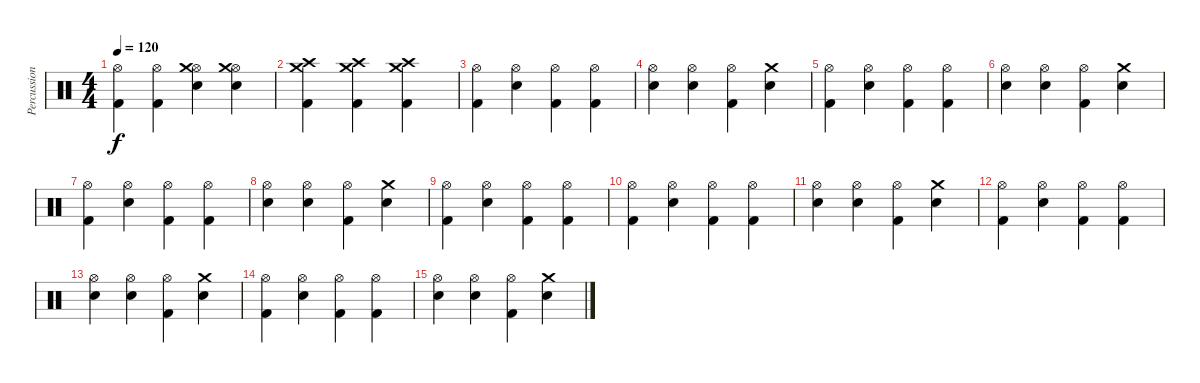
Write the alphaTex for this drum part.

\track ("Percussion" "Percussion") {instrument percussion}
\staff {score}
\articulation defaults
\ts (4 4)
\tempo 120
\clef neutral
\ks c
("Kick (hit) 2" "Hi-Hat (open)").4{dy f} ("Kick (hit) 2" "Hi-Hat (open)").4 ("Snare (hit) 2" "Hi-Hat (open)" "Crash medium (hit)").4 ("Snare (hit) 2" "Hi-Hat (open)" "Crash medium (hit)").4 |
("Kick (hit) 2" "Crash high (hit)" "Crash medium (hit)").4 ("Kick (hit) 2" "Crash high (hit)" "Crash medium (hit)").4 ("Kick (hit) 2" "Crash high (hit)" "Crash medium (hit)").4 |
("Kick (hit) 2" "Hi-Hat (open)").4 ("Snare (hit) 2" "Hi-Hat (open)").4 ("Kick (hit) 2" "Hi-Hat (open)").4 ("Kick (hit) 2" "Hi-Hat (open)").4 |
("Snare (hit) 2" "Hi-Hat (open)").4 ("Snare (hit) 2" "Hi-Hat (open)").4 ("Kick (hit) 2" "Hi-Hat (open)").4 ("Snare (hit) 2" "Crash medium (hit)").4 |
("Kick (hit) 2" "Hi-Hat (open)").4 ("Snare (hit) 2" "Hi-Hat (open)").4 ("Kick (hit) 2" "Hi-Hat (open)").4 ("Kick (hit) 2" "Hi-Hat (open)").4 |
("Snare (hit) 2" "Hi-Hat (open)").4 ("Snare (hit) 2" "Hi-Hat (open)").4 ("Kick (hit) 2" "Hi-Hat (open)").4 ("Snare (hit) 2" "Crash medium (hit)").4 |
("Kick (hit) 2" "Hi-Hat (open)").4 ("Snare (hit) 2" "Hi-Hat (open)").4 ("Kick (hit) 2" "Hi-Hat (open)").4 ("Kick (hit) 2" "Hi-Hat (open)").4 |
("Snare (hit) 2" "Hi-Hat (open)").4 ("Snare (hit) 2" "Hi-Hat (open)").4 ("Kick (hit) 2" "Hi-Hat (open)").4 ("Snare (hit) 2" "Crash medium (hit)").4 |
("Kick (hit) 2" "Hi-Hat (open)").4 ("Snare (hit) 2" "Hi-Hat (open)").4 ("Kick (hit) 2" "Hi-Hat (open)").4 ("Kick (hit) 2" "Hi-Hat (open)").4 |
("Kick (hit) 2" "Hi-Hat (open)").4 ("Snare (hit) 2" "Hi-Hat (open)").4 ("Kick (hit) 2" "Hi-Hat (open)").4 ("Kick (hit) 2" "Hi-Hat (open)").4 |
("Snare (hit) 2" "Hi-Hat (open)").4 ("Snare (hit) 2" "Hi-Hat (open)").4 ("Kick (hit) 2" "Hi-Hat (open)").4 ("Snare (hit) 2" "Crash medium (hit)").4 |
("Kick (hit) 2" "Hi-Hat (open)").4 ("Snare (hit) 2" "Hi-Hat (open)").4 ("Kick (hit) 2" "Hi-Hat (open)").4 ("Kick (hit) 2" "Hi-Hat (open)").4 |
("Snare (hit) 2" "Hi-Hat (open)").4 ("Snare (hit) 2" "Hi-Hat (open)").4 ("Kick (hit) 2" "Hi-Hat (open)").4 ("Snare (hit) 2" "Crash medium (hit)").4 |
("Kick (hit) 2" "Hi-Hat (open)").4 ("Snare (hit) 2" "Hi-Hat (open)").4 ("Kick (hit) 2" "Hi-Hat (open)").4 ("Kick (hit) 2" "Hi-Hat (open)").4 |
("Snare (hit) 2" "Hi-Hat (open)").4 ("Snare (hit) 2" "Hi-Hat (open)").4 ("Kick (hit) 2" "Hi-Hat (open)").4 ("Snare (hit) 2" "Crash medium (hit)").4
